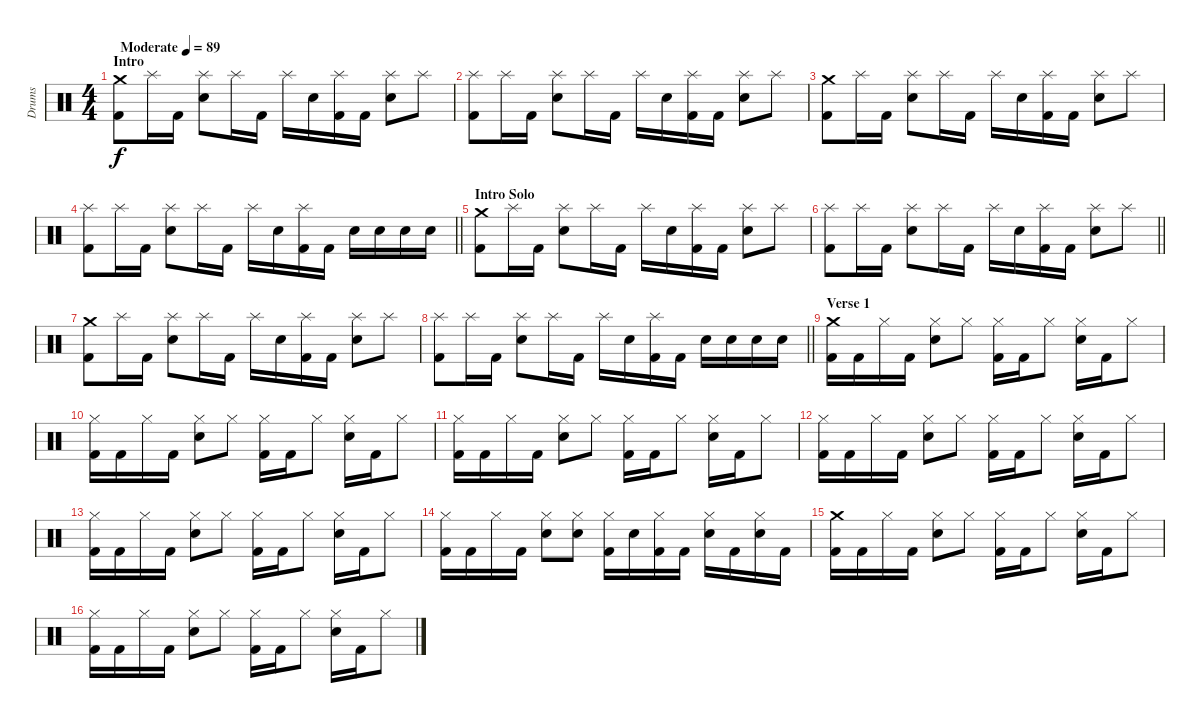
\track ("Drums" "Drums") {instrument percussion}
\staff {score}
\articulation defaults
\ts (4 4)
\section ("" "Intro")
\tempo (89 "Moderate")
\clef neutral
\ks c
("Crash medium (hit)" "Kick (hit) 2").8{dy f} "Splash (hit)".16 "Kick (hit) 2".16 ("Splash (hit)" "Electric Snare (hit)").8 "Splash (hit)".16 "Kick (hit) 2".16 "Splash (hit)".16 "Electric Snare (hit)".16 ("Splash (hit)" "Kick (hit) 2").16 "Kick (hit) 2".16 ("Splash (hit)" "Electric Snare (hit)").8 "Splash (hit)".8 |
("Splash (hit)" "Kick (hit) 2").8 "Splash (hit)".16 "Kick (hit) 2".16 ("Splash (hit)" "Electric Snare (hit)").8 "Splash (hit)".16 "Kick (hit) 2".16 "Splash (hit)".16 "Electric Snare (hit)".16 ("Splash (hit)" "Kick (hit) 2").16 "Kick (hit) 2".16 ("Splash (hit)" "Electric Snare (hit)").8 "Splash (hit)".8 |
("Crash medium (hit)" "Kick (hit) 2").8 "Splash (hit)".16 "Kick (hit) 2".16 ("Splash (hit)" "Electric Snare (hit)").8 "Splash (hit)".16 "Kick (hit) 2".16 "Splash (hit)".16 "Electric Snare (hit)".16 ("Splash (hit)" "Kick (hit) 2").16 "Kick (hit) 2".16 ("Splash (hit)" "Electric Snare (hit)").8 "Splash (hit)".8 |
\barLineRight lightlight
("Splash (hit)" "Kick (hit) 2").8 "Splash (hit)".16 "Kick (hit) 2".16 ("Splash (hit)" "Electric Snare (hit)").8 "Splash (hit)".16 "Kick (hit) 2".16 "Splash (hit)".16 "Electric Snare (hit)".16 ("Splash (hit)" "Kick (hit) 2").16 "Kick (hit) 2".16 "Electric Snare (hit)".16 "Electric Snare (hit)".16 "Electric Snare (hit)".16 "Electric Snare (hit)".16 |
\section ("" "Intro Solo")
("Crash medium (hit)" "Kick (hit) 2").8 "Splash (hit)".16 "Kick (hit) 2".16 ("Splash (hit)" "Electric Snare (hit)").8 "Splash (hit)".16 "Kick (hit) 2".16 "Splash (hit)".16 "Electric Snare (hit)".16 ("Splash (hit)" "Kick (hit) 2").16 "Kick (hit) 2".16 ("Splash (hit)" "Electric Snare (hit)").8 "Splash (hit)".8 |
\barLineRight lightlight
("Splash (hit)" "Kick (hit) 2").8 "Splash (hit)".16 "Kick (hit) 2".16 ("Splash (hit)" "Electric Snare (hit)").8 "Splash (hit)".16 "Kick (hit) 2".16 "Splash (hit)".16 "Electric Snare (hit)".16 ("Splash (hit)" "Kick (hit) 2").16 "Kick (hit) 2".16 ("Splash (hit)" "Electric Snare (hit)").8 "Splash (hit)".8 |
("Crash medium (hit)" "Kick (hit) 2").8 "Splash (hit)".16 "Kick (hit) 2".16 ("Splash (hit)" "Electric Snare (hit)").8 "Splash (hit)".16 "Kick (hit) 2".16 "Splash (hit)".16 "Electric Snare (hit)".16 ("Splash (hit)" "Kick (hit) 2").16 "Kick (hit) 2".16 ("Splash (hit)" "Electric Snare (hit)").8 "Splash (hit)".8 |
\barLineRight lightlight
("Splash (hit)" "Kick (hit) 2").8 "Splash (hit)".16 "Kick (hit) 2".16 ("Splash (hit)" "Electric Snare (hit)").8 "Splash (hit)".16 "Kick (hit) 2".16 "Splash (hit)".16 "Electric Snare (hit)".16 ("Splash (hit)" "Kick (hit) 2").16 "Kick (hit) 2".16 "Electric Snare (hit)".16 "Electric Snare (hit)".16 "Electric Snare (hit)".16 "Electric Snare (hit)".16 |
\section ("" "Verse 1")
("Crash medium (hit)" "Kick (hit) 2").16 "Kick (hit) 2".16 "Hi-Hat (closed)".16 "Kick (hit) 2".16 ("Hi-Hat (closed)" "Electric Snare (hit)").8 "Hi-Hat (closed)".8 ("Hi-Hat (closed)" "Kick (hit) 2").16 "Kick (hit) 2".16 "Hi-Hat (closed)".8 ("Hi-Hat (closed)" "Electric Snare (hit)").16 "Kick (hit) 2".16 "Hi-Hat (closed)".8 |
("Hi-Hat (closed)" "Kick (hit) 2").16 "Kick (hit) 2".16 "Hi-Hat (closed)".16 "Kick (hit) 2".16 ("Hi-Hat (closed)" "Electric Snare (hit)").8 "Hi-Hat (closed)".8 ("Hi-Hat (closed)" "Kick (hit) 2").16 "Kick (hit) 2".16 "Hi-Hat (closed)".8 ("Hi-Hat (closed)" "Electric Snare (hit)").16 "Kick (hit) 2".16 "Hi-Hat (closed)".8 |
("Hi-Hat (closed)" "Kick (hit) 2").16 "Kick (hit) 2".16 "Hi-Hat (closed)".16 "Kick (hit) 2".16 ("Hi-Hat (closed)" "Electric Snare (hit)").8 "Hi-Hat (closed)".8 ("Hi-Hat (closed)" "Kick (hit) 2").16 "Kick (hit) 2".16 "Hi-Hat (closed)".8 ("Hi-Hat (closed)" "Electric Snare (hit)").16 "Kick (hit) 2".16 "Hi-Hat (closed)".8 |
("Hi-Hat (closed)" "Kick (hit) 2").16 "Kick (hit) 2".16 "Hi-Hat (closed)".16 "Kick (hit) 2".16 ("Hi-Hat (closed)" "Electric Snare (hit)").8 "Hi-Hat (closed)".8 ("Hi-Hat (closed)" "Kick (hit) 2").16 "Kick (hit) 2".16 "Hi-Hat (closed)".8 ("Hi-Hat (closed)" "Electric Snare (hit)").16 "Kick (hit) 2".16 "Hi-Hat (closed)".8 |
("Hi-Hat (closed)" "Kick (hit) 2").16 "Kick (hit) 2".16 "Hi-Hat (closed)".16 "Kick (hit) 2".16 ("Hi-Hat (closed)" "Electric Snare (hit)").8 "Hi-Hat (closed)".8 ("Hi-Hat (closed)" "Kick (hit) 2").16 "Kick (hit) 2".16 "Hi-Hat (closed)".8 ("Hi-Hat (closed)" "Electric Snare (hit)").16 "Kick (hit) 2".16 "Hi-Hat (closed)".8 |
("Hi-Hat (closed)" "Kick (hit) 2").16 "Kick (hit) 2".16 "Hi-Hat (closed)".16 "Kick (hit) 2".16 ("Hi-Hat (closed)" "Electric Snare (hit)").8 ("Hi-Hat (closed)" "Electric Snare (hit)").8 ("Hi-Hat (closed)" "Kick (hit) 2").16 "Electric Snare (hit)".16 ("Hi-Hat (closed)" "Kick (hit) 2").16 "Kick (hit) 2".16 ("Hi-Hat (closed)" "Electric Snare (hit)").16 "Kick (hit) 2".16 ("Hi-Hat (closed)" "Electric Snare (hit)").16 "Kick (hit) 2".16 |
("Crash medium (hit)" "Kick (hit) 2").16 "Kick (hit) 2".16 "Hi-Hat (closed)".16 "Kick (hit) 2".16 ("Hi-Hat (closed)" "Electric Snare (hit)").8 "Hi-Hat (closed)".8 ("Hi-Hat (closed)" "Kick (hit) 2").16 "Kick (hit) 2".16 "Hi-Hat (closed)".8 ("Hi-Hat (closed)" "Electric Snare (hit)").16 "Kick (hit) 2".16 "Hi-Hat (closed)".8 |
("Hi-Hat (closed)" "Kick (hit) 2").16 "Kick (hit) 2".16 "Hi-Hat (closed)".16 "Kick (hit) 2".16 ("Hi-Hat (closed)" "Electric Snare (hit)").8 "Hi-Hat (closed)".8 ("Hi-Hat (closed)" "Kick (hit) 2").16 "Kick (hit) 2".16 "Hi-Hat (closed)".8 ("Hi-Hat (closed)" "Electric Snare (hit)").16 "Kick (hit) 2".16 "Hi-Hat (closed)".8
